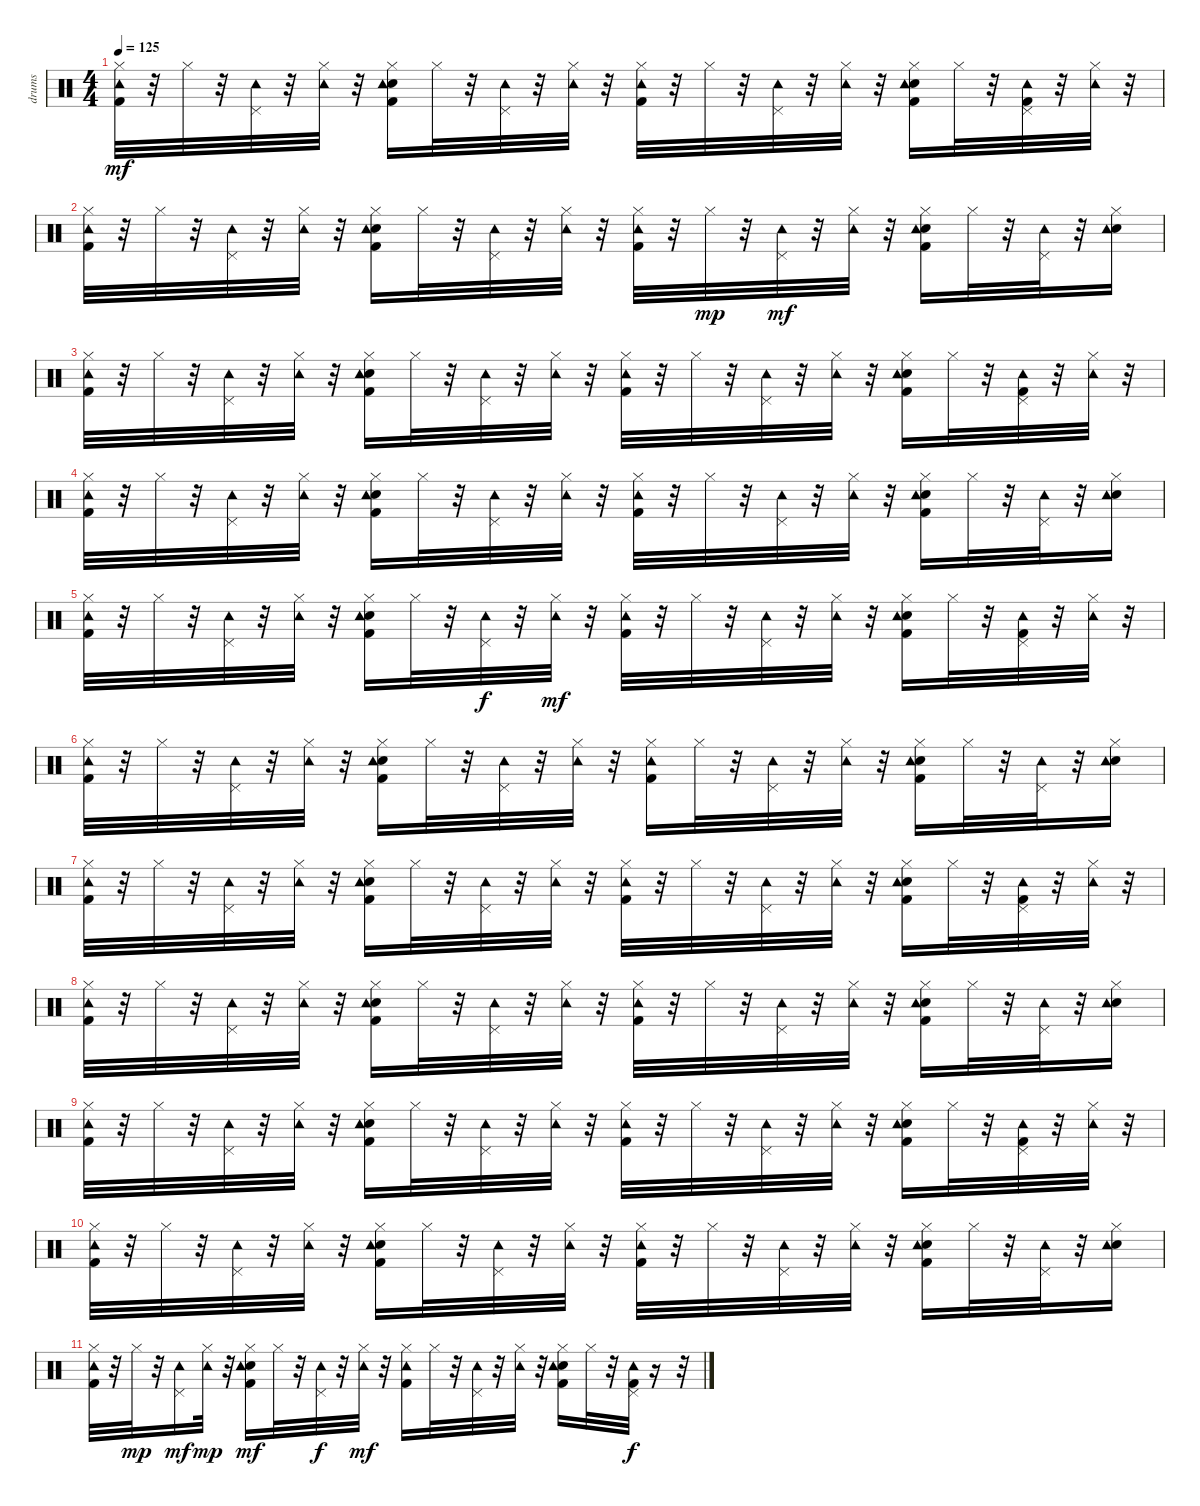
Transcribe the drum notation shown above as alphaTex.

\track ("drums   " "drums   ") {instrument percussion}
\staff {score}
\articulation defaults
\ts (4 4)
\tempo 125
\clef neutral
\ks c
("Kick (hit) 2" "Hi-Hat (closed)" "Tambourine (hit)").32{dy mf} r.32 "Hi-Hat (closed)".32 r.32 ("Pedal Hi-Hat (hit)" "Tambourine (hit)").32 r.32 ("Hi-Hat (closed)" "Tambourine (hit)").32 r.32 ("Kick (hit) 2" "Snare (hit) 2" "Hi-Hat (closed)" "Tambourine (hit)").16 "Hi-Hat (closed)".32 r.32 ("Pedal Hi-Hat (hit)" "Tambourine (hit)").32 r.32 ("Hi-Hat (closed)" "Tambourine (hit)").32 r.32 ("Kick (hit) 2" "Hi-Hat (closed)" "Tambourine (hit)").32 r.32 "Hi-Hat (closed)".32 r.32 ("Pedal Hi-Hat (hit)" "Tambourine (hit)").32 r.32 ("Hi-Hat (closed)" "Tambourine (hit)").32 r.32 ("Kick (hit) 2" "Snare (hit) 2" "Hi-Hat (closed)" "Tambourine (hit)").16 "Hi-Hat (closed)".32 r.32 ("Kick (hit) 2" "Pedal Hi-Hat (hit)" "Tambourine (hit)").32 r.32 ("Hi-Hat (closed)" "Tambourine (hit)").32 r.32 |
("Kick (hit) 2" "Hi-Hat (closed)" "Tambourine (hit)").32 r.32 "Hi-Hat (closed)".32 r.32 ("Pedal Hi-Hat (hit)" "Tambourine (hit)").32 r.32 ("Hi-Hat (closed)" "Tambourine (hit)").32 r.32 ("Kick (hit) 2" "Snare (hit) 2" "Hi-Hat (closed)" "Tambourine (hit)").16 "Hi-Hat (closed)".32 r.32 ("Pedal Hi-Hat (hit)" "Tambourine (hit)").32 r.32 ("Hi-Hat (closed)" "Tambourine (hit)").32 r.32 ("Kick (hit) 2" "Hi-Hat (closed)" "Tambourine (hit)").32 r.32 "Hi-Hat (closed)".32{dy mp} r.32 ("Pedal Hi-Hat (hit)" "Tambourine (hit)").32{dy mf} r.32 ("Hi-Hat (closed)" "Tambourine (hit)").32 r.32 ("Kick (hit) 2" "Snare (hit) 2" "Hi-Hat (closed)" "Tambourine (hit)").16 "Hi-Hat (closed)".32 r.32 ("Pedal Hi-Hat (hit)" "Tambourine (hit)").32 r.32 ("Snare (hit) 2" "Hi-Hat (closed)" "Tambourine (hit)").16 |
("Kick (hit) 2" "Hi-Hat (closed)" "Tambourine (hit)").32 r.32 "Hi-Hat (closed)".32 r.32 ("Pedal Hi-Hat (hit)" "Tambourine (hit)").32 r.32 ("Hi-Hat (closed)" "Tambourine (hit)").32 r.32 ("Kick (hit) 2" "Snare (hit) 2" "Hi-Hat (closed)" "Tambourine (hit)").16 "Hi-Hat (closed)".32 r.32 ("Pedal Hi-Hat (hit)" "Tambourine (hit)").32 r.32 ("Hi-Hat (closed)" "Tambourine (hit)").32 r.32 ("Kick (hit) 2" "Hi-Hat (closed)" "Tambourine (hit)").32 r.32 "Hi-Hat (closed)".32 r.32 ("Pedal Hi-Hat (hit)" "Tambourine (hit)").32 r.32 ("Hi-Hat (closed)" "Tambourine (hit)").32 r.32 ("Kick (hit) 2" "Snare (hit) 2" "Hi-Hat (closed)" "Tambourine (hit)").16 "Hi-Hat (closed)".32 r.32 ("Kick (hit) 2" "Pedal Hi-Hat (hit)" "Tambourine (hit)").32 r.32 ("Hi-Hat (closed)" "Tambourine (hit)").32 r.32 |
("Kick (hit) 2" "Hi-Hat (closed)" "Tambourine (hit)").32 r.32 "Hi-Hat (closed)".32 r.32 ("Pedal Hi-Hat (hit)" "Tambourine (hit)").32 r.32 ("Hi-Hat (closed)" "Tambourine (hit)").32 r.32 ("Kick (hit) 2" "Snare (hit) 2" "Hi-Hat (closed)" "Tambourine (hit)").16 "Hi-Hat (closed)".32 r.32 ("Pedal Hi-Hat (hit)" "Tambourine (hit)").32 r.32 ("Hi-Hat (closed)" "Tambourine (hit)").32 r.32 ("Kick (hit) 2" "Hi-Hat (closed)" "Tambourine (hit)").32 r.32 "Hi-Hat (closed)".32 r.32 ("Pedal Hi-Hat (hit)" "Tambourine (hit)").32 r.32 ("Hi-Hat (closed)" "Tambourine (hit)").32 r.32 ("Kick (hit) 2" "Snare (hit) 2" "Hi-Hat (closed)" "Tambourine (hit)").16 "Hi-Hat (closed)".32 r.32 ("Pedal Hi-Hat (hit)" "Tambourine (hit)").32 r.32 ("Snare (hit) 2" "Hi-Hat (closed)" "Tambourine (hit)").16 |
("Kick (hit) 2" "Hi-Hat (closed)" "Tambourine (hit)").32 r.32 "Hi-Hat (closed)".32 r.32 ("Pedal Hi-Hat (hit)" "Tambourine (hit)").32 r.32 ("Hi-Hat (closed)" "Tambourine (hit)").32 r.32 ("Kick (hit) 2" "Snare (hit) 2" "Hi-Hat (closed)" "Tambourine (hit)").16 "Hi-Hat (closed)".32 r.32 ("Pedal Hi-Hat (hit)" "Tambourine (hit)").32{dy f} r.32 ("Hi-Hat (closed)" "Tambourine (hit)").32{dy mf} r.32 ("Kick (hit) 2" "Hi-Hat (closed)" "Tambourine (hit)").32 r.32 "Hi-Hat (closed)".32 r.32 ("Pedal Hi-Hat (hit)" "Tambourine (hit)").32 r.32 ("Hi-Hat (closed)" "Tambourine (hit)").32 r.32 ("Kick (hit) 2" "Snare (hit) 2" "Hi-Hat (closed)" "Tambourine (hit)").16 "Hi-Hat (closed)".32 r.32 ("Kick (hit) 2" "Pedal Hi-Hat (hit)" "Tambourine (hit)").32 r.32 ("Hi-Hat (closed)" "Tambourine (hit)").32 r.32 |
("Kick (hit) 2" "Hi-Hat (closed)" "Tambourine (hit)").32 r.32 "Hi-Hat (closed)".32 r.32 ("Pedal Hi-Hat (hit)" "Tambourine (hit)").32 r.32 ("Hi-Hat (closed)" "Tambourine (hit)").32 r.32 ("Kick (hit) 2" "Snare (hit) 2" "Hi-Hat (closed)" "Tambourine (hit)").16 "Hi-Hat (closed)".32 r.32 ("Pedal Hi-Hat (hit)" "Tambourine (hit)").32 r.32 ("Hi-Hat (closed)" "Tambourine (hit)").32 r.32 ("Kick (hit) 2" "Hi-Hat (closed)" "Tambourine (hit)").16 "Hi-Hat (closed)".32 r.32 ("Pedal Hi-Hat (hit)" "Tambourine (hit)").32 r.32 ("Hi-Hat (closed)" "Tambourine (hit)").32 r.32 ("Kick (hit) 2" "Snare (hit) 2" "Hi-Hat (closed)" "Tambourine (hit)").16 "Hi-Hat (closed)".32 r.32 ("Pedal Hi-Hat (hit)" "Tambourine (hit)").32 r.32 ("Snare (hit) 2" "Hi-Hat (closed)" "Tambourine (hit)").16 |
("Kick (hit) 2" "Hi-Hat (closed)" "Tambourine (hit)").32 r.32 "Hi-Hat (closed)".32 r.32 ("Pedal Hi-Hat (hit)" "Tambourine (hit)").32 r.32 ("Hi-Hat (closed)" "Tambourine (hit)").32 r.32 ("Kick (hit) 2" "Snare (hit) 2" "Hi-Hat (closed)" "Tambourine (hit)").16 "Hi-Hat (closed)".32 r.32 ("Pedal Hi-Hat (hit)" "Tambourine (hit)").32 r.32 ("Hi-Hat (closed)" "Tambourine (hit)").32 r.32 ("Kick (hit) 2" "Hi-Hat (closed)" "Tambourine (hit)").32 r.32 "Hi-Hat (closed)".32 r.32 ("Pedal Hi-Hat (hit)" "Tambourine (hit)").32 r.32 ("Hi-Hat (closed)" "Tambourine (hit)").32 r.32 ("Kick (hit) 2" "Snare (hit) 2" "Hi-Hat (closed)" "Tambourine (hit)").16 "Hi-Hat (closed)".32 r.32 ("Kick (hit) 2" "Pedal Hi-Hat (hit)" "Tambourine (hit)").32 r.32 ("Hi-Hat (closed)" "Tambourine (hit)").32 r.32 |
("Kick (hit) 2" "Hi-Hat (closed)" "Tambourine (hit)").32 r.32 "Hi-Hat (closed)".32 r.32 ("Pedal Hi-Hat (hit)" "Tambourine (hit)").32 r.32 ("Hi-Hat (closed)" "Tambourine (hit)").32 r.32 ("Kick (hit) 2" "Snare (hit) 2" "Hi-Hat (closed)" "Tambourine (hit)").16 "Hi-Hat (closed)".32 r.32 ("Pedal Hi-Hat (hit)" "Tambourine (hit)").32 r.32 ("Hi-Hat (closed)" "Tambourine (hit)").32 r.32 ("Kick (hit) 2" "Hi-Hat (closed)" "Tambourine (hit)").32 r.32 "Hi-Hat (closed)".32 r.32 ("Pedal Hi-Hat (hit)" "Tambourine (hit)").32 r.32 ("Hi-Hat (closed)" "Tambourine (hit)").32 r.32 ("Kick (hit) 2" "Snare (hit) 2" "Hi-Hat (closed)" "Tambourine (hit)").16 "Hi-Hat (closed)".32 r.32 ("Pedal Hi-Hat (hit)" "Tambourine (hit)").32 r.32 ("Snare (hit) 2" "Hi-Hat (closed)" "Tambourine (hit)").16 |
("Kick (hit) 2" "Hi-Hat (closed)" "Tambourine (hit)").32 r.32 "Hi-Hat (closed)".32 r.32 ("Pedal Hi-Hat (hit)" "Tambourine (hit)").32 r.32 ("Hi-Hat (closed)" "Tambourine (hit)").32 r.32 ("Kick (hit) 2" "Snare (hit) 2" "Hi-Hat (closed)" "Tambourine (hit)").16 "Hi-Hat (closed)".32 r.32 ("Pedal Hi-Hat (hit)" "Tambourine (hit)").32 r.32 ("Hi-Hat (closed)" "Tambourine (hit)").32 r.32 ("Kick (hit) 2" "Hi-Hat (closed)" "Tambourine (hit)").32 r.32 "Hi-Hat (closed)".32 r.32 ("Pedal Hi-Hat (hit)" "Tambourine (hit)").32 r.32 ("Hi-Hat (closed)" "Tambourine (hit)").32 r.32 ("Kick (hit) 2" "Snare (hit) 2" "Hi-Hat (closed)" "Tambourine (hit)").16 "Hi-Hat (closed)".32 r.32 ("Kick (hit) 2" "Pedal Hi-Hat (hit)" "Tambourine (hit)").32 r.32 ("Hi-Hat (closed)" "Tambourine (hit)").32 r.32 |
("Kick (hit) 2" "Hi-Hat (closed)" "Tambourine (hit)").32 r.32 "Hi-Hat (closed)".32 r.32 ("Pedal Hi-Hat (hit)" "Tambourine (hit)").32 r.32 ("Hi-Hat (closed)" "Tambourine (hit)").32 r.32 ("Kick (hit) 2" "Snare (hit) 2" "Hi-Hat (closed)" "Tambourine (hit)").16 "Hi-Hat (closed)".32 r.32 ("Pedal Hi-Hat (hit)" "Tambourine (hit)").32 r.32 ("Hi-Hat (closed)" "Tambourine (hit)").32 r.32 ("Kick (hit) 2" "Hi-Hat (closed)" "Tambourine (hit)").32 r.32 "Hi-Hat (closed)".32 r.32 ("Pedal Hi-Hat (hit)" "Tambourine (hit)").32 r.32 ("Hi-Hat (closed)" "Tambourine (hit)").32 r.32 ("Kick (hit) 2" "Snare (hit) 2" "Hi-Hat (closed)" "Tambourine (hit)").16 "Hi-Hat (closed)".32 r.32 ("Pedal Hi-Hat (hit)" "Tambourine (hit)").32 r.32 ("Snare (hit) 2" "Hi-Hat (closed)" "Tambourine (hit)").16 |
("Kick (hit) 2" "Hi-Hat (closed)" "Tambourine (hit)").32 r.32 "Hi-Hat (closed)".32{dy mp} r.32 ("Pedal Hi-Hat (hit)" "Tambourine (hit)").16{dy mf} ("Hi-Hat (closed)" "Tambourine (hit)").32{dy mp} r.32 ("Kick (hit) 2" "Snare (hit) 2" "Hi-Hat (closed)" "Tambourine (hit)").16{dy mf} "Hi-Hat (closed)".32 r.32 ("Pedal Hi-Hat (hit)" "Tambourine (hit)").32{dy f} r.32 ("Hi-Hat (closed)" "Tambourine (hit)").32{dy mf} r.32 ("Kick (hit) 2" "Hi-Hat (closed)" "Tambourine (hit)").16 "Hi-Hat (closed)".32 r.32 ("Pedal Hi-Hat (hit)" "Tambourine (hit)").32 r.32 ("Hi-Hat (closed)" "Tambourine (hit)").32 r.32 ("Kick (hit) 2" "Snare (hit) 2" "Hi-Hat (closed)" "Tambourine (hit)").16 "Hi-Hat (closed)".32 r.32 ("Kick (hit) 2" "Pedal Hi-Hat (hit)" "Tambourine (hit)").32{dy f} r.16 r.32
